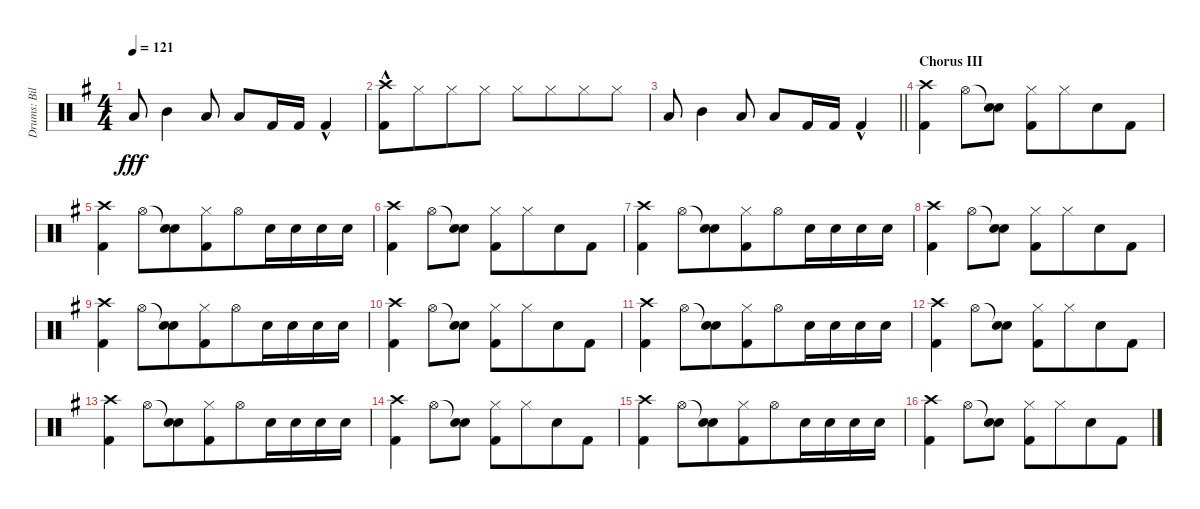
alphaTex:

\track ("Drums: Bill" "Drums: Bil") {instrument percussion}
\staff {score}
\articulation defaults
\ts (4 4)
\tempo 121
\clef neutral
\ks g "Low Tom (hit)".8{dy fff} "Mid Tom (hit)".4 "Low Tom (hit)".8 "Low Floor Tom (hit)".8 "Kick (hit) 2".16 "Kick (hit) 2".16 "Kick (hit) 2"{hac}.4
|
("Crash high (hit)" "Kick (hit) 2"{hac}).8 "Hi-Hat (closed)".8{beam merge} "Hi-Hat (closed)".8 "Hi-Hat (closed)".8 "Hi-Hat (closed)".8{beam merge} "Hi-Hat (closed)".8{beam merge} "Hi-Hat (closed)".8 "Hi-Hat (closed)".8 |
\barLineRight lightlight "Low Tom (hit)".8 "Mid Tom (hit)".4 "Low Tom (hit)".8 "Low Floor Tom (hit)".8 "Kick (hit) 2".16 "Kick (hit) 2".16 "Kick (hit) 2"{hac}.4
|
\section ("" "Chorus III")
("Crash high (hit)" "Kick (hit) 2").4{beam merge} "Hi-Hat (open)".8 ("Snare (hit)"{t} "Electric Snare (hit)").8 ("Hi-Hat (closed)" "Kick (hit) 2").8 "Hi-Hat (closed)".8{beam merge} "Electric Snare (hit)".8 "Kick (hit) 2".8 |
("Crash high (hit)" "Kick (hit) 2").4{beam merge} "Hi-Hat (open)".8{beam merge} ("Snare (hit)"{t} "Electric Snare (hit)").8{beam merge} ("Hi-Hat (closed)" "Kick (hit) 2").8{beam merge} "Hi-Hat (open)".8{beam merge} "Electric Snare (hit)".16{beam merge} "Electric Snare (hit)".16{beam merge} "Electric Snare (hit)".16{beam merge} "Electric Snare (hit)".16 |
("Crash high (hit)" "Kick (hit) 2").4{beam merge} "Hi-Hat (open)".8 ("Snare (hit)"{t} "Electric Snare (hit)").8 ("Hi-Hat (closed)" "Kick (hit) 2").8 "Hi-Hat (closed)".8{beam merge} "Electric Snare (hit)".8 "Kick (hit) 2".8 |
("Crash high (hit)" "Kick (hit) 2").4{beam merge} "Hi-Hat (open)".8{beam merge} ("Snare (hit)"{t} "Electric Snare (hit)").8{beam merge} ("Hi-Hat (closed)" "Kick (hit) 2").8{beam merge} "Hi-Hat (open)".8{beam merge} "Electric Snare (hit)".16{beam merge} "Electric Snare (hit)".16{beam merge} "Electric Snare (hit)".16{beam merge} "Electric Snare (hit)".16 |
("Crash high (hit)" "Kick (hit) 2").4{beam merge} "Hi-Hat (open)".8 ("Snare (hit)"{t} "Electric Snare (hit)").8 ("Hi-Hat (closed)" "Kick (hit) 2").8 "Hi-Hat (closed)".8{beam merge} "Electric Snare (hit)".8 "Kick (hit) 2".8 |
("Crash high (hit)" "Kick (hit) 2").4{beam merge} "Hi-Hat (open)".8{beam merge} ("Snare (hit)"{t} "Electric Snare (hit)").8{beam merge} ("Hi-Hat (closed)" "Kick (hit) 2").8{beam merge} "Hi-Hat (open)".8{beam merge} "Electric Snare (hit)".16{beam merge} "Electric Snare (hit)".16{beam merge} "Electric Snare (hit)".16{beam merge} "Electric Snare (hit)".16 |
("Crash high (hit)" "Kick (hit) 2").4{beam merge} "Hi-Hat (open)".8 ("Snare (hit)"{t} "Electric Snare (hit)").8 ("Hi-Hat (closed)" "Kick (hit) 2").8 "Hi-Hat (closed)".8{beam merge} "Electric Snare (hit)".8 "Kick (hit) 2".8 |
("Crash high (hit)" "Kick (hit) 2").4{beam merge} "Hi-Hat (open)".8{beam merge} ("Snare (hit)"{t} "Electric Snare (hit)").8{beam merge} ("Hi-Hat (closed)" "Kick (hit) 2").8{beam merge} "Hi-Hat (open)".8{beam merge} "Electric Snare (hit)".16{beam merge} "Electric Snare (hit)".16{beam merge} "Electric Snare (hit)".16{beam merge} "Electric Snare (hit)".16 |
("Crash high (hit)" "Kick (hit) 2").4{beam merge} "Hi-Hat (open)".8 ("Snare (hit)"{t} "Electric Snare (hit)").8 ("Hi-Hat (closed)" "Kick (hit) 2").8 "Hi-Hat (closed)".8{beam merge} "Electric Snare (hit)".8 "Kick (hit) 2".8 |
("Crash high (hit)" "Kick (hit) 2").4{beam merge} "Hi-Hat (open)".8{beam merge} ("Snare (hit)"{t} "Electric Snare (hit)").8{beam merge} ("Hi-Hat (closed)" "Kick (hit) 2").8{beam merge} "Hi-Hat (open)".8{beam merge} "Electric Snare (hit)".16{beam merge} "Electric Snare (hit)".16{beam merge} "Electric Snare (hit)".16{beam merge} "Electric Snare (hit)".16 |
("Crash high (hit)" "Kick (hit) 2").4{beam merge} "Hi-Hat (open)".8 ("Snare (hit)"{t} "Electric Snare (hit)").8 ("Hi-Hat (closed)" "Kick (hit) 2").8 "Hi-Hat (closed)".8{beam merge} "Electric Snare (hit)".8 "Kick (hit) 2".8 |
("Crash high (hit)" "Kick (hit) 2").4{beam merge} "Hi-Hat (open)".8{beam merge} ("Snare (hit)"{t} "Electric Snare (hit)").8{beam merge} ("Hi-Hat (closed)" "Kick (hit) 2").8{beam merge} "Hi-Hat (open)".8{beam merge} "Electric Snare (hit)".16{beam merge} "Electric Snare (hit)".16{beam merge} "Electric Snare (hit)".16{beam merge} "Electric Snare (hit)".16 |
("Crash high (hit)" "Kick (hit) 2").4{beam merge} "Hi-Hat (open)".8 ("Snare (hit)"{t} "Electric Snare (hit)").8 ("Hi-Hat (closed)" "Kick (hit) 2").8 "Hi-Hat (closed)".8{beam merge} "Electric Snare (hit)".8 "Kick (hit) 2".8
